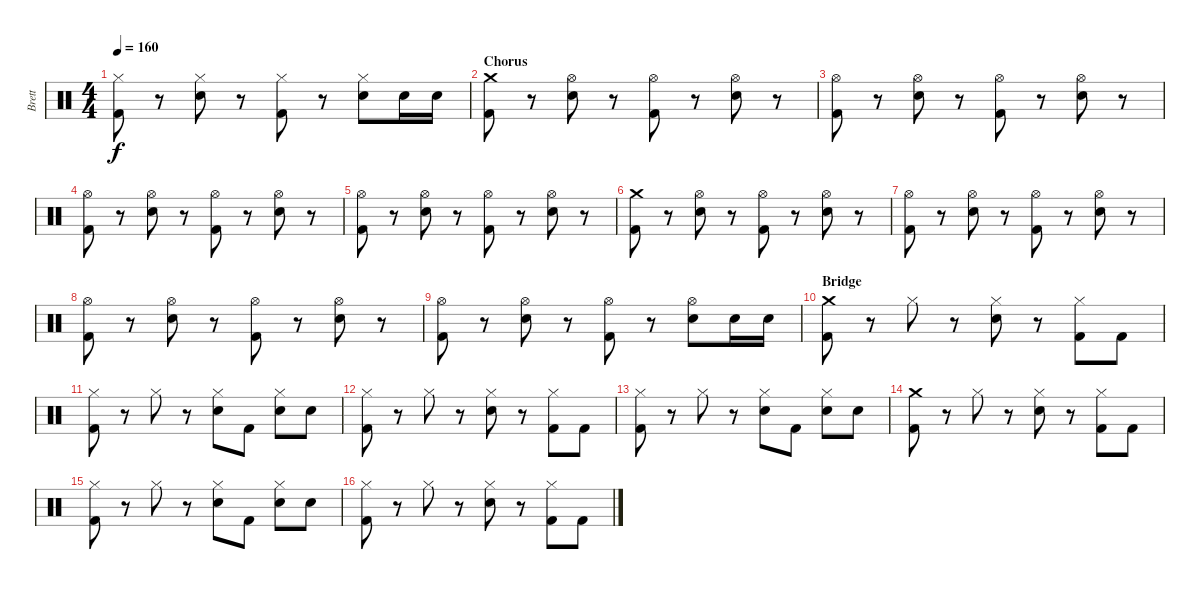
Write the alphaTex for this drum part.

\track ("Brett" "Brett") {instrument percussion}
\staff {score}
\articulation defaults
\ts (4 4)
\tempo 160
\clef neutral
\ks c
("Hi-Hat (closed)" "Kick (hit) 2").8{dy f} r.8 ("Hi-Hat (closed)" "Snare (hit) 2").8 r.8 ("Hi-Hat (closed)" "Kick (hit) 2").8 r.8 ("Hi-Hat (closed)" "Snare (hit) 2").8 "Snare (hit) 2".16 "Snare (hit) 2".16 |
\section ("" "Chorus")
("Crash medium (hit)" "Kick (hit) 2").8 r.8 ("Hi-Hat (open)" "Snare (hit) 2").8 r.8 ("Hi-Hat (open)" "Kick (hit) 2").8 r.8 ("Hi-Hat (open)" "Snare (hit) 2").8 r.8 |
("Hi-Hat (open)" "Kick (hit) 2").8 r.8 ("Hi-Hat (open)" "Snare (hit) 2").8 r.8 ("Hi-Hat (open)" "Kick (hit) 2").8 r.8 ("Hi-Hat (open)" "Snare (hit) 2").8 r.8 |
("Hi-Hat (open)" "Kick (hit) 2").8 r.8 ("Hi-Hat (open)" "Snare (hit) 2").8 r.8 ("Hi-Hat (open)" "Kick (hit) 2").8 r.8 ("Hi-Hat (open)" "Snare (hit) 2").8 r.8 |
("Hi-Hat (open)" "Kick (hit) 2").8 r.8 ("Hi-Hat (open)" "Snare (hit) 2").8 r.8 ("Hi-Hat (open)" "Kick (hit) 2").8 r.8 ("Hi-Hat (open)" "Snare (hit) 2").8 r.8 |
("Crash medium (hit)" "Kick (hit) 2").8 r.8 ("Hi-Hat (open)" "Snare (hit) 2").8 r.8 ("Hi-Hat (open)" "Kick (hit) 2").8 r.8 ("Hi-Hat (open)" "Snare (hit) 2").8 r.8 |
("Hi-Hat (open)" "Kick (hit) 2").8 r.8 ("Hi-Hat (open)" "Snare (hit) 2").8 r.8 ("Hi-Hat (open)" "Kick (hit) 2").8 r.8 ("Hi-Hat (open)" "Snare (hit) 2").8 r.8 |
("Hi-Hat (open)" "Kick (hit) 2").8 r.8 ("Hi-Hat (open)" "Snare (hit) 2").8 r.8 ("Hi-Hat (open)" "Kick (hit) 2").8 r.8 ("Hi-Hat (open)" "Snare (hit) 2").8 r.8 |
("Hi-Hat (open)" "Kick (hit) 2").8 r.8 ("Hi-Hat (open)" "Snare (hit) 2").8 r.8 ("Hi-Hat (open)" "Kick (hit) 2").8 r.8 ("Hi-Hat (open)" "Snare (hit) 2").8 "Snare (hit) 2".16 "Snare (hit) 2".16 |
\section ("" "Bridge")
("Crash medium (hit)" "Kick (hit) 2").8 r.8 "Hi-Hat (closed)".8 r.8 ("Hi-Hat (closed)" "Snare (hit) 2").8 r.8 ("Hi-Hat (closed)" "Kick (hit) 2").8 "Kick (hit) 2".8 |
("Hi-Hat (closed)" "Kick (hit) 2").8 r.8 "Hi-Hat (closed)".8 r.8 ("Hi-Hat (closed)" "Snare (hit) 2").8 "Kick (hit) 2".8 ("Hi-Hat (closed)" "Snare (hit) 2").8 "Snare (hit) 2".8 |
("Hi-Hat (closed)" "Kick (hit) 2").8 r.8 "Hi-Hat (closed)".8 r.8 ("Hi-Hat (closed)" "Snare (hit) 2").8 r.8 ("Hi-Hat (closed)" "Kick (hit) 2").8 "Kick (hit) 2".8 |
("Hi-Hat (closed)" "Kick (hit) 2").8 r.8 "Hi-Hat (closed)".8 r.8 ("Hi-Hat (closed)" "Snare (hit) 2").8 "Kick (hit) 2".8 ("Hi-Hat (closed)" "Snare (hit) 2").8 "Snare (hit) 2".8 |
("Crash medium (hit)" "Kick (hit) 2").8 r.8 "Hi-Hat (closed)".8 r.8 ("Hi-Hat (closed)" "Snare (hit) 2").8 r.8 ("Hi-Hat (closed)" "Kick (hit) 2").8 "Kick (hit) 2".8 |
("Hi-Hat (closed)" "Kick (hit) 2").8 r.8 "Hi-Hat (closed)".8 r.8 ("Hi-Hat (closed)" "Snare (hit) 2").8 "Kick (hit) 2".8 ("Hi-Hat (closed)" "Snare (hit) 2").8 "Snare (hit) 2".8 |
("Hi-Hat (closed)" "Kick (hit) 2").8 r.8 "Hi-Hat (closed)".8 r.8 ("Hi-Hat (closed)" "Snare (hit) 2").8 r.8 ("Hi-Hat (closed)" "Kick (hit) 2").8 "Kick (hit) 2".8
